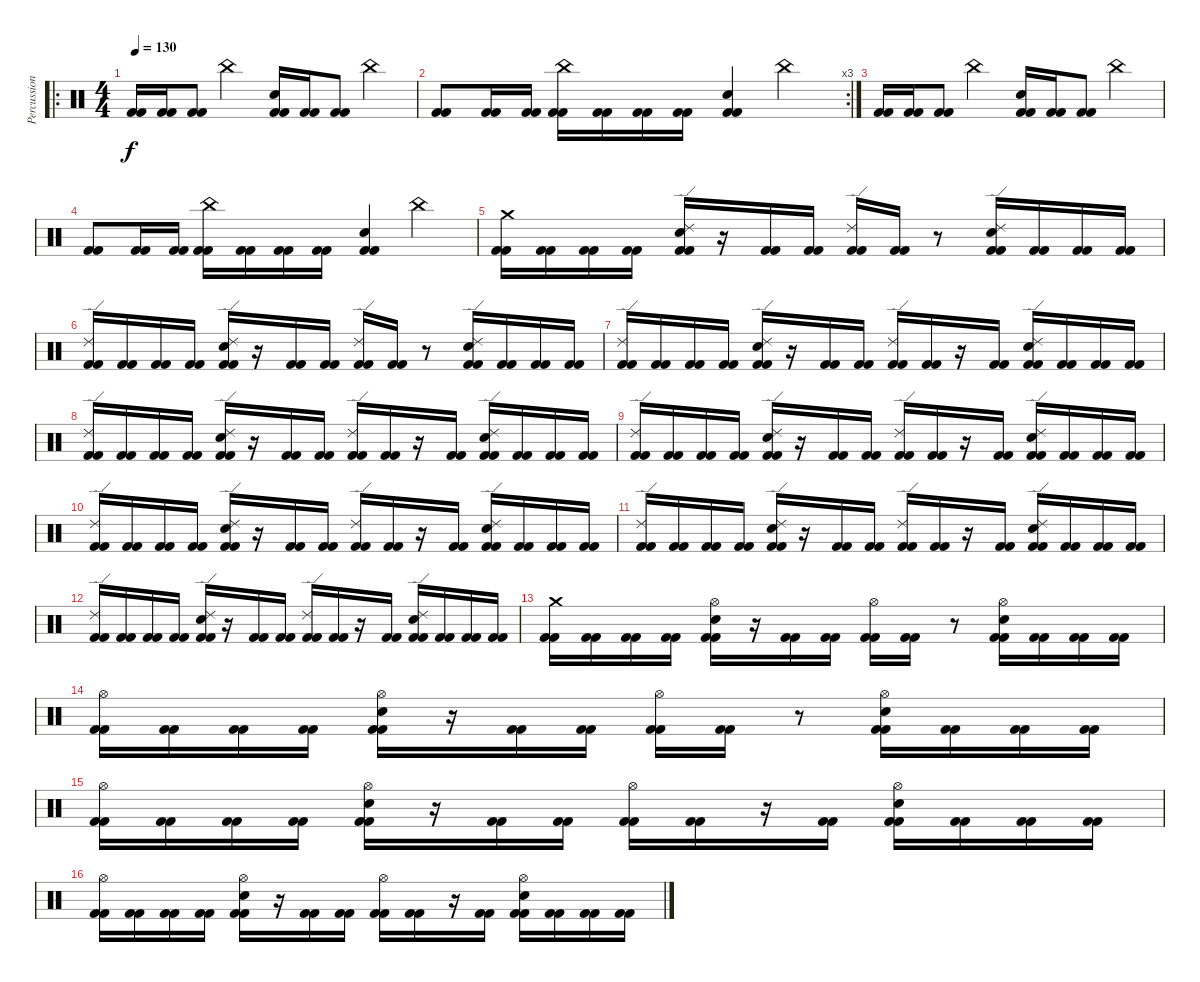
\track ("Percussion" "Percussion") {instrument percussion}
\staff {score}
\articulation defaults
\ro
\ts (4 4)
\tempo 130
\clef neutral
\ks c
("Kick (hit) 2" "Kick (hit) 2").16{dy f} ("Kick (hit) 2" "Kick (hit) 2").16 ("Kick (hit) 2" "Kick (hit) 2").8 "China (hit)".4 ("Kick (hit) 2" "Kick (hit) 2" "Electric Snare (hit)").16 ("Kick (hit) 2" "Kick (hit) 2").16 ("Kick (hit) 2" "Kick (hit) 2").8 "China (hit)".4 |
\rc 3
("Kick (hit) 2" "Kick (hit) 2").8 ("Kick (hit) 2" "Kick (hit) 2").16 ("Kick (hit) 2" "Kick (hit) 2").16 ("Kick (hit) 2" "Kick (hit) 2" "China (hit)").16 ("Kick (hit) 2" "Kick (hit) 2").16 ("Kick (hit) 2" "Kick (hit) 2").16 ("Kick (hit) 2" "Kick (hit) 2").16 ("Kick (hit) 2" "Kick (hit) 2" "Electric Snare (hit)").4 "China (hit)".4 |
("Kick (hit) 2" "Kick (hit) 2").16 ("Kick (hit) 2" "Kick (hit) 2").16 ("Kick (hit) 2" "Kick (hit) 2").8 "China (hit)".4 ("Kick (hit) 2" "Kick (hit) 2" "Electric Snare (hit)").16 ("Kick (hit) 2" "Kick (hit) 2").16 ("Kick (hit) 2" "Kick (hit) 2").8 "China (hit)".4 |
("Kick (hit) 2" "Kick (hit) 2").8 ("Kick (hit) 2" "Kick (hit) 2").16 ("Kick (hit) 2" "Kick (hit) 2").16 ("Kick (hit) 2" "Kick (hit) 2" "China (hit)").16 ("Kick (hit) 2" "Kick (hit) 2").16 ("Kick (hit) 2" "Kick (hit) 2").16 ("Kick (hit) 2" "Kick (hit) 2").16 ("Kick (hit) 2" "Kick (hit) 2" "Electric Snare (hit)").4 "China (hit)".4 |
("Kick (hit) 2" "Kick (hit) 2" "Crash medium (hit)").16 ("Kick (hit) 2" "Kick (hit) 2").16 ("Kick (hit) 2" "Kick (hit) 2").16 ("Kick (hit) 2" "Kick (hit) 2").16 ("Kick (hit) 2" "Kick (hit) 2" "Ride (edge) 2" "Electric Snare (hit)").16 r.16 ("Kick (hit) 2" "Kick (hit) 2").16 ("Kick (hit) 2" "Kick (hit) 2").16 ("Kick (hit) 2" "Kick (hit) 2" "Ride (edge) 2").16 ("Kick (hit) 2" "Kick (hit) 2").16 r.8 ("Kick (hit) 2" "Kick (hit) 2" "Ride (edge) 2" "Electric Snare (hit)").16 ("Kick (hit) 2" "Kick (hit) 2").16 ("Kick (hit) 2" "Kick (hit) 2").16 ("Kick (hit) 2" "Kick (hit) 2").16 |
("Kick (hit) 2" "Kick (hit) 2" "Ride (edge) 2").16 ("Kick (hit) 2" "Kick (hit) 2").16 ("Kick (hit) 2" "Kick (hit) 2").16 ("Kick (hit) 2" "Kick (hit) 2").16 ("Kick (hit) 2" "Kick (hit) 2" "Ride (edge) 2" "Electric Snare (hit)").16 r.16 ("Kick (hit) 2" "Kick (hit) 2").16 ("Kick (hit) 2" "Kick (hit) 2").16 ("Kick (hit) 2" "Kick (hit) 2" "Ride (edge) 2").16 ("Kick (hit) 2" "Kick (hit) 2").16 r.8 ("Kick (hit) 2" "Kick (hit) 2" "Ride (edge) 2" "Electric Snare (hit)").16 ("Kick (hit) 2" "Kick (hit) 2").16 ("Kick (hit) 2" "Kick (hit) 2").16 ("Kick (hit) 2" "Kick (hit) 2").16 |
("Kick (hit) 2" "Kick (hit) 2" "Ride (edge) 2").16 ("Kick (hit) 2" "Kick (hit) 2").16 ("Kick (hit) 2" "Kick (hit) 2").16 ("Kick (hit) 2" "Kick (hit) 2").16 ("Kick (hit) 2" "Kick (hit) 2" "Ride (edge) 2" "Electric Snare (hit)").16 r.16 ("Kick (hit) 2" "Kick (hit) 2").16 ("Kick (hit) 2" "Kick (hit) 2").16 ("Kick (hit) 2" "Kick (hit) 2" "Ride (edge) 2").16 ("Kick (hit) 2" "Kick (hit) 2").16 r.16 ("Kick (hit) 2" "Kick (hit) 2").16 ("Kick (hit) 2" "Kick (hit) 2" "Ride (edge) 2" "Electric Snare (hit)").16 ("Kick (hit) 2" "Kick (hit) 2").16 ("Kick (hit) 2" "Kick (hit) 2").16 ("Kick (hit) 2" "Kick (hit) 2").16 |
("Kick (hit) 2" "Kick (hit) 2" "Ride (edge) 2").16 ("Kick (hit) 2" "Kick (hit) 2").16 ("Kick (hit) 2" "Kick (hit) 2").16 ("Kick (hit) 2" "Kick (hit) 2").16 ("Kick (hit) 2" "Kick (hit) 2" "Ride (edge) 2" "Electric Snare (hit)").16 r.16 ("Kick (hit) 2" "Kick (hit) 2").16 ("Kick (hit) 2" "Kick (hit) 2").16 ("Kick (hit) 2" "Kick (hit) 2" "Ride (edge) 2").16 ("Kick (hit) 2" "Kick (hit) 2").16 r.16 ("Kick (hit) 2" "Kick (hit) 2").16 ("Kick (hit) 2" "Kick (hit) 2" "Ride (edge) 2" "Electric Snare (hit)").16 ("Kick (hit) 2" "Kick (hit) 2").16 ("Kick (hit) 2" "Kick (hit) 2").16 ("Kick (hit) 2" "Kick (hit) 2").16 |
("Kick (hit) 2" "Kick (hit) 2" "Ride (edge) 2").16 ("Kick (hit) 2" "Kick (hit) 2").16 ("Kick (hit) 2" "Kick (hit) 2").16 ("Kick (hit) 2" "Kick (hit) 2").16 ("Kick (hit) 2" "Kick (hit) 2" "Ride (edge) 2" "Electric Snare (hit)").16 r.16 ("Kick (hit) 2" "Kick (hit) 2").16 ("Kick (hit) 2" "Kick (hit) 2").16 ("Kick (hit) 2" "Kick (hit) 2" "Ride (edge) 2").16 ("Kick (hit) 2" "Kick (hit) 2").16 r.16 ("Kick (hit) 2" "Kick (hit) 2").16 ("Kick (hit) 2" "Kick (hit) 2" "Ride (edge) 2" "Electric Snare (hit)").16 ("Kick (hit) 2" "Kick (hit) 2").16 ("Kick (hit) 2" "Kick (hit) 2").16 ("Kick (hit) 2" "Kick (hit) 2").16 |
("Kick (hit) 2" "Kick (hit) 2" "Ride (edge) 2").16 ("Kick (hit) 2" "Kick (hit) 2").16 ("Kick (hit) 2" "Kick (hit) 2").16 ("Kick (hit) 2" "Kick (hit) 2").16 ("Kick (hit) 2" "Kick (hit) 2" "Ride (edge) 2" "Electric Snare (hit)").16 r.16 ("Kick (hit) 2" "Kick (hit) 2").16 ("Kick (hit) 2" "Kick (hit) 2").16 ("Kick (hit) 2" "Kick (hit) 2" "Ride (edge) 2").16 ("Kick (hit) 2" "Kick (hit) 2").16 r.16 ("Kick (hit) 2" "Kick (hit) 2").16 ("Kick (hit) 2" "Kick (hit) 2" "Ride (edge) 2" "Electric Snare (hit)").16 ("Kick (hit) 2" "Kick (hit) 2").16 ("Kick (hit) 2" "Kick (hit) 2").16 ("Kick (hit) 2" "Kick (hit) 2").16 |
("Kick (hit) 2" "Kick (hit) 2" "Ride (edge) 2").16 ("Kick (hit) 2" "Kick (hit) 2").16 ("Kick (hit) 2" "Kick (hit) 2").16 ("Kick (hit) 2" "Kick (hit) 2").16 ("Kick (hit) 2" "Kick (hit) 2" "Ride (edge) 2" "Electric Snare (hit)").16 r.16 ("Kick (hit) 2" "Kick (hit) 2").16 ("Kick (hit) 2" "Kick (hit) 2").16 ("Kick (hit) 2" "Kick (hit) 2" "Ride (edge) 2").16 ("Kick (hit) 2" "Kick (hit) 2").16 r.16 ("Kick (hit) 2" "Kick (hit) 2").16 ("Kick (hit) 2" "Kick (hit) 2" "Ride (edge) 2" "Electric Snare (hit)").16 ("Kick (hit) 2" "Kick (hit) 2").16 ("Kick (hit) 2" "Kick (hit) 2").16 ("Kick (hit) 2" "Kick (hit) 2").16 |
("Kick (hit) 2" "Kick (hit) 2" "Ride (edge) 2").16 ("Kick (hit) 2" "Kick (hit) 2").16 ("Kick (hit) 2" "Kick (hit) 2").16 ("Kick (hit) 2" "Kick (hit) 2").16 ("Kick (hit) 2" "Kick (hit) 2" "Ride (edge) 2" "Electric Snare (hit)").16 r.16 ("Kick (hit) 2" "Kick (hit) 2").16 ("Kick (hit) 2" "Kick (hit) 2").16 ("Kick (hit) 2" "Kick (hit) 2" "Ride (edge) 2").16 ("Kick (hit) 2" "Kick (hit) 2").16 r.16 ("Kick (hit) 2" "Kick (hit) 2").16 ("Kick (hit) 2" "Kick (hit) 2" "Ride (edge) 2" "Electric Snare (hit)").16 ("Kick (hit) 2" "Kick (hit) 2").16 ("Kick (hit) 2" "Kick (hit) 2").16 ("Kick (hit) 2" "Kick (hit) 2").16 |
("Kick (hit) 2" "Kick (hit) 2" "Crash medium (hit)").16 ("Kick (hit) 2" "Kick (hit) 2").16 ("Kick (hit) 2" "Kick (hit) 2").16 ("Kick (hit) 2" "Kick (hit) 2").16 ("Kick (hit) 2" "Kick (hit) 2" "Hi-Hat (open)" "Electric Snare (hit)").16 r.16 ("Kick (hit) 2" "Kick (hit) 2").16 ("Kick (hit) 2" "Kick (hit) 2").16 ("Kick (hit) 2" "Kick (hit) 2" "Hi-Hat (open)").16 ("Kick (hit) 2" "Kick (hit) 2").16 r.8 ("Kick (hit) 2" "Kick (hit) 2" "Hi-Hat (open)" "Electric Snare (hit)").16 ("Kick (hit) 2" "Kick (hit) 2").16 ("Kick (hit) 2" "Kick (hit) 2").16 ("Kick (hit) 2" "Kick (hit) 2").16 |
("Kick (hit) 2" "Kick (hit) 2" "Hi-Hat (open)").16 ("Kick (hit) 2" "Kick (hit) 2").16 ("Kick (hit) 2" "Kick (hit) 2").16 ("Kick (hit) 2" "Kick (hit) 2").16 ("Kick (hit) 2" "Kick (hit) 2" "Hi-Hat (open)" "Electric Snare (hit)").16 r.16 ("Kick (hit) 2" "Kick (hit) 2").16 ("Kick (hit) 2" "Kick (hit) 2").16 ("Kick (hit) 2" "Kick (hit) 2" "Hi-Hat (open)").16 ("Kick (hit) 2" "Kick (hit) 2").16 r.8 ("Kick (hit) 2" "Kick (hit) 2" "Hi-Hat (open)" "Electric Snare (hit)").16 ("Kick (hit) 2" "Kick (hit) 2").16 ("Kick (hit) 2" "Kick (hit) 2").16 ("Kick (hit) 2" "Kick (hit) 2").16 |
("Kick (hit) 2" "Kick (hit) 2" "Hi-Hat (open)").16 ("Kick (hit) 2" "Kick (hit) 2").16 ("Kick (hit) 2" "Kick (hit) 2").16 ("Kick (hit) 2" "Kick (hit) 2").16 ("Kick (hit) 2" "Kick (hit) 2" "Hi-Hat (open)" "Electric Snare (hit)").16 r.16 ("Kick (hit) 2" "Kick (hit) 2").16 ("Kick (hit) 2" "Kick (hit) 2").16 ("Kick (hit) 2" "Kick (hit) 2" "Hi-Hat (open)").16 ("Kick (hit) 2" "Kick (hit) 2").16 r.16 ("Kick (hit) 2" "Kick (hit) 2").16 ("Kick (hit) 2" "Kick (hit) 2" "Hi-Hat (open)" "Electric Snare (hit)").16 ("Kick (hit) 2" "Kick (hit) 2").16 ("Kick (hit) 2" "Kick (hit) 2").16 ("Kick (hit) 2" "Kick (hit) 2").16 |
("Kick (hit) 2" "Kick (hit) 2" "Hi-Hat (open)").16 ("Kick (hit) 2" "Kick (hit) 2").16 ("Kick (hit) 2" "Kick (hit) 2").16 ("Kick (hit) 2" "Kick (hit) 2").16 ("Kick (hit) 2" "Kick (hit) 2" "Hi-Hat (open)" "Electric Snare (hit)").16 r.16 ("Kick (hit) 2" "Kick (hit) 2").16 ("Kick (hit) 2" "Kick (hit) 2").16 ("Kick (hit) 2" "Kick (hit) 2" "Hi-Hat (open)").16 ("Kick (hit) 2" "Kick (hit) 2").16 r.16 ("Kick (hit) 2" "Kick (hit) 2").16 ("Kick (hit) 2" "Kick (hit) 2" "Hi-Hat (open)" "Electric Snare (hit)").16 ("Kick (hit) 2" "Kick (hit) 2").16 ("Kick (hit) 2" "Kick (hit) 2").16 ("Kick (hit) 2" "Kick (hit) 2").16
